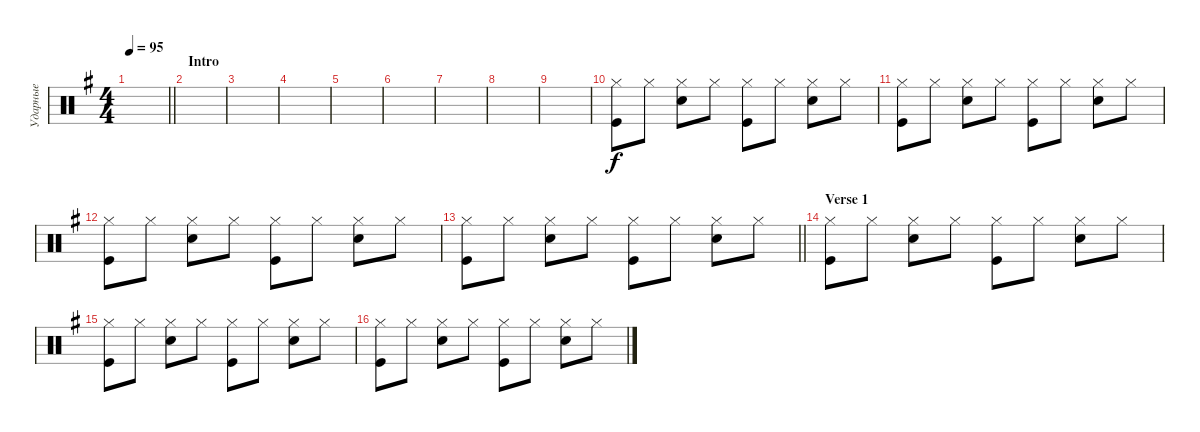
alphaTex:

\track ("Ударные" "Ударные") {instrument percussion}
\staff {score}
\articulation defaults
\ts (4 4)
\tempo 95
\clef neutral
\barLineRight lightlight
\ks eminor
|
\section ("" "Intro")
|
|
|
|
|
|
|
|
("Kick (hit)" "Hi-Hat (closed)").8 "Hi-Hat (closed)".8 ("Snare (hit) 2" "Hi-Hat (closed)").8 "Hi-Hat (closed)".8 ("Kick (hit)" "Hi-Hat (closed)").8 "Hi-Hat (closed)".8 ("Snare (hit) 2" "Hi-Hat (closed)").8 "Hi-Hat (closed)".8 |
("Kick (hit)" "Hi-Hat (closed)").8 "Hi-Hat (closed)".8 ("Snare (hit) 2" "Hi-Hat (closed)").8 "Hi-Hat (closed)".8 ("Kick (hit)" "Hi-Hat (closed)").8 "Hi-Hat (closed)".8 ("Snare (hit) 2" "Hi-Hat (closed)").8 "Hi-Hat (closed)".8 |
("Kick (hit)" "Hi-Hat (closed)").8 "Hi-Hat (closed)".8 ("Snare (hit) 2" "Hi-Hat (closed)").8 "Hi-Hat (closed)".8 ("Kick (hit)" "Hi-Hat (closed)").8 "Hi-Hat (closed)".8 ("Snare (hit) 2" "Hi-Hat (closed)").8 "Hi-Hat (closed)".8 |
\barLineRight lightlight
("Kick (hit)" "Hi-Hat (closed)").8 "Hi-Hat (closed)".8 ("Snare (hit) 2" "Hi-Hat (closed)").8 "Hi-Hat (closed)".8 ("Kick (hit)" "Hi-Hat (closed)").8 "Hi-Hat (closed)".8 ("Snare (hit) 2" "Hi-Hat (closed)").8 "Hi-Hat (closed)".8 |
\section ("" "Verse 1")
("Kick (hit)" "Hi-Hat (closed)").8 "Hi-Hat (closed)".8 ("Snare (hit) 2" "Hi-Hat (closed)").8 "Hi-Hat (closed)".8 ("Kick (hit)" "Hi-Hat (closed)").8 "Hi-Hat (closed)".8 ("Snare (hit) 2" "Hi-Hat (closed)").8 "Hi-Hat (closed)".8 |
("Kick (hit)" "Hi-Hat (closed)").8 "Hi-Hat (closed)".8 ("Snare (hit) 2" "Hi-Hat (closed)").8 "Hi-Hat (closed)".8 ("Kick (hit)" "Hi-Hat (closed)").8 "Hi-Hat (closed)".8 ("Snare (hit) 2" "Hi-Hat (closed)").8 "Hi-Hat (closed)".8 |
("Kick (hit)" "Hi-Hat (closed)").8 "Hi-Hat (closed)".8 ("Snare (hit) 2" "Hi-Hat (closed)").8 "Hi-Hat (closed)".8 ("Kick (hit)" "Hi-Hat (closed)").8 "Hi-Hat (closed)".8 ("Snare (hit) 2" "Hi-Hat (closed)").8 "Hi-Hat (closed)".8
